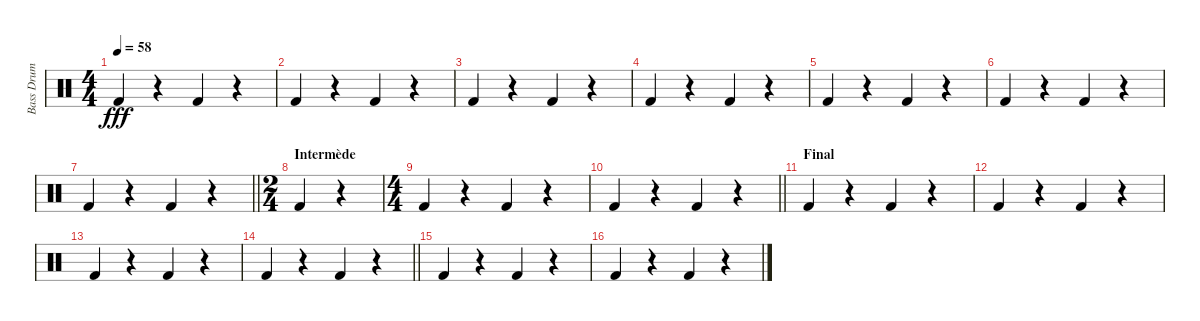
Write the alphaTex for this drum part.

\track ("Bass Drum" "Bass Drum") {instrument percussion}
\staff {score}
\articulation defaults
\ts (4 4)
\tempo 58
\clef neutral
\ks c "Kick (hit) 2".4{dy fff}
r.4 "Kick (hit) 2".4 r.4 |
"Kick (hit) 2".4 r.4 "Kick (hit) 2".4 r.4 |
"Kick (hit) 2".4 r.4 "Kick (hit) 2".4 r.4 |
"Kick (hit) 2".4 r.4 "Kick (hit) 2".4 r.4 |
"Kick (hit) 2".4 r.4 "Kick (hit) 2".4 r.4 |
"Kick (hit) 2".4 r.4 "Kick (hit) 2".4 r.4 |
\barLineRight lightlight "Kick (hit) 2".4
r.4 "Kick (hit) 2".4 r.4 |
\ts (2 4)
\section ("" "Intermède")
"Kick (hit) 2".4 r.4 |
\ts (4 4)
"Kick (hit) 2".4 r.4 "Kick (hit) 2".4 r.4 |
\barLineRight lightlight "Kick (hit) 2".4
r.4 "Kick (hit) 2".4 r.4 |
\section ("" "Final")
"Kick (hit) 2".4 r.4 "Kick (hit) 2".4 r.4 |
"Kick (hit) 2".4 r.4 "Kick (hit) 2".4 r.4 |
"Kick (hit) 2".4 r.4 "Kick (hit) 2".4 r.4 |
\barLineRight lightlight "Kick (hit) 2".4
r.4 "Kick (hit) 2".4 r.4 |
"Kick (hit) 2".4 r.4 "Kick (hit) 2".4 r.4 |
"Kick (hit) 2".4 r.4 "Kick (hit) 2".4 r.4
